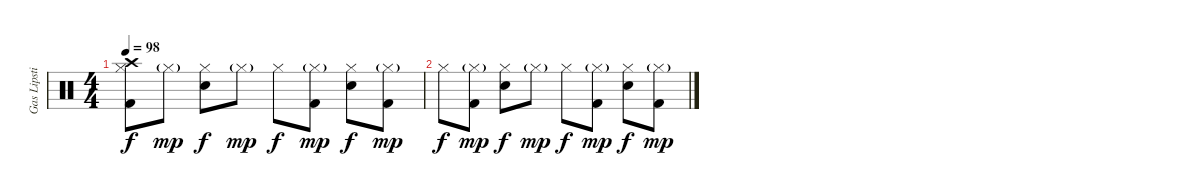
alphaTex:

\track ("Gas Lipstick (Drums)" "Gas Lipsti") {instrument percussion}
\staff {score}
\articulation defaults
\ts (4 4)
\tempo 98
\clef neutral
\ks c
("Crash high (hit)" "Hi-Hat (closed)" "Kick (hit) 2").8{dy f} "Hi-Hat (closed)"{g}.8{dy mp} ("Hi-Hat (closed)" "Snare (hit) 2").8{dy f} "Hi-Hat (closed)"{g}.8{dy mp} "Hi-Hat (closed)".8{dy f} ("Hi-Hat (closed)"{g} "Kick (hit) 2").8{dy mp} ("Hi-Hat (closed)" "Snare (hit) 2").8{dy f} ("Hi-Hat (closed)"{g} "Kick (hit) 2").8{dy mp} |
"Hi-Hat (closed)".8{dy f} ("Hi-Hat (closed)"{g} "Kick (hit) 2").8{dy mp} ("Hi-Hat (closed)" "Snare (hit) 2").8{dy f} "Hi-Hat (closed)"{g}.8{dy mp} "Hi-Hat (closed)".8{dy f} ("Hi-Hat (closed)"{g} "Kick (hit) 2").8{dy mp} ("Hi-Hat (closed)" "Snare (hit) 2").8{dy f} ("Hi-Hat (closed)"{g} "Kick (hit) 2").8{dy mp}
